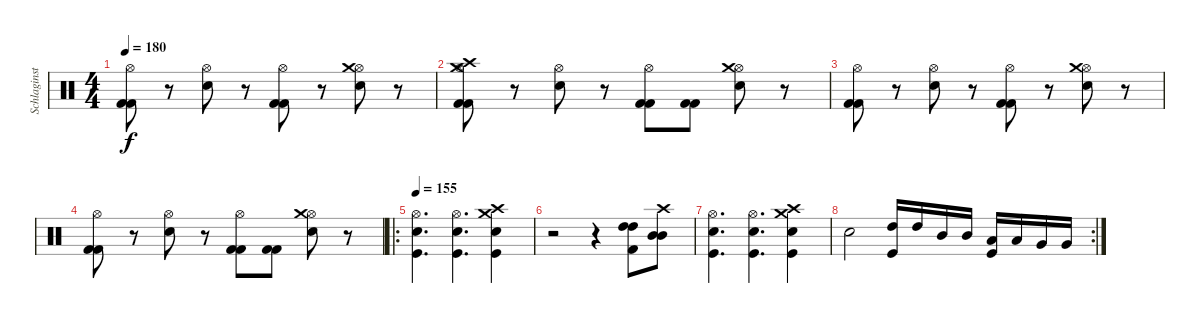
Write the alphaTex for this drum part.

\track ("Schlaginstrumente - Auswahl" "Schlaginst") {instrument percussion}
\staff {score}
\articulation defaults
\ts (4 4)
\tempo 180
\clef neutral
\ks c
("Kick (hit) 2" "Kick (hit) 2" "Hi-Hat (open)").8{dy f} r.8 ("Hi-Hat (open)" "Snare (hit) 2").8 r.8 ("Kick (hit) 2" "Kick (hit) 2" "Hi-Hat (open)").8 r.8 ("Hi-Hat (open)" "Snare (hit) 2" "Crash medium (hit)").8 r.8 |
("Kick (hit) 2" "Kick (hit) 2" "Hi-Hat (open)" "Crash high (hit)" "Crash medium (hit)").8 r.8 ("Hi-Hat (open)" "Snare (hit) 2").8 r.8 ("Kick (hit) 2" "Kick (hit) 2" "Hi-Hat (open)").8 ("Kick (hit) 2" "Kick (hit) 2").8 ("Hi-Hat (open)" "Snare (hit) 2" "Crash medium (hit)").8 r.8 |
("Kick (hit) 2" "Kick (hit) 2" "Hi-Hat (open)").8 r.8 ("Hi-Hat (open)" "Snare (hit) 2").8 r.8 ("Kick (hit) 2" "Kick (hit) 2" "Hi-Hat (open)").8 r.8 ("Hi-Hat (open)" "Snare (hit) 2" "Crash medium (hit)").8 r.8 |
("Kick (hit) 2" "Kick (hit) 2" "Hi-Hat (open)").8 r.8 ("Hi-Hat (open)" "Snare (hit) 2").8 r.8 ("Kick (hit) 2" "Kick (hit) 2" "Hi-Hat (open)").8 ("Kick (hit) 2" "Kick (hit) 2").8 ("Hi-Hat (open)" "Snare (hit) 2" "Crash medium (hit)").8 r.8 |
\ro
\tempo 155
("Kick (hit)" "Electric Snare (hit)" "Hi-Hat (open)").4{d} ("Kick (hit)" "Electric Snare (hit)" "Hi-Hat (open)").4{d} ("Kick (hit)" "Electric Snare (hit)" "Crash medium (hit)" "Crash high (hit)").4 |
r.2 r.4 ("Kick (hit) 2" "High Tom (hit)" "High Tom (hit)").8 ("Mid Tom (hit)" "Mid Tom (hit)" "Crash high (hit)").8 |
("Kick (hit)" "Electric Snare (hit)" "Hi-Hat (open)").4{d} ("Kick (hit)" "Electric Snare (hit)" "Hi-Hat (open)").4{d} ("Kick (hit)" "Electric Snare (hit)" "Crash medium (hit)" "Crash high (hit)").4 |
\rc 2 "Electric Snare (hit)".2
("Kick (hit)" "High Tom (hit)").16 "High Tom (hit)".16 "Mid Tom (hit)".16 "Mid Tom (hit)".16 ("Kick (hit)" "Low Tom (hit)").16 "Low Tom (hit)".16 "Very Low Tom (hit)".16 "Very Low Tom (hit)".16
